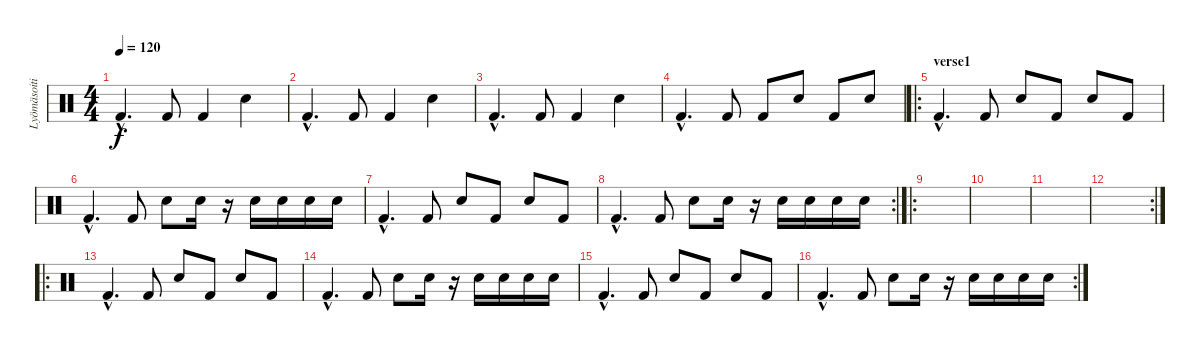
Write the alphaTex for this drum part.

\track ("Lyömäsoitin" "Lyömäsoiti") {instrument percussion}
\staff {score}
\articulation defaults
\ts (4 4)
\tempo 120
\clef neutral
\ks c "Kick (hit) 2"{hac}.4{d dy f} "Kick (hit) 2".8 "Kick (hit) 2".4 "Snare (hit) 2".4
|
"Kick (hit) 2"{hac}.4{d} "Kick (hit) 2".8 "Kick (hit) 2".4 "Snare (hit) 2".4 |
"Kick (hit) 2"{hac}.4{d} "Kick (hit) 2".8 "Kick (hit) 2".4 "Snare (hit) 2".4 |
"Kick (hit) 2"{hac}.4{d} "Kick (hit) 2".8 "Kick (hit) 2".8 "Snare (hit) 2".8 "Kick (hit) 2".8 "Snare (hit) 2".8 |
\ro
\section ("" "verse1")
"Kick (hit) 2"{hac}.4{d} "Kick (hit) 2".8 "Snare (hit) 2".8 "Kick (hit) 2".8 "Snare (hit) 2".8 "Kick (hit) 2".8 |
"Kick (hit) 2"{hac}.4{d} "Kick (hit) 2".8 "Snare (hit) 2".8 "Snare (hit) 2".16 r.16 "Snare (hit) 2".16 "Snare (hit) 2".16 "Snare (hit) 2".16 "Snare (hit) 2".16 |
"Kick (hit) 2"{hac}.4{d} "Kick (hit) 2".8 "Snare (hit) 2".8 "Kick (hit) 2".8 "Snare (hit) 2".8 "Kick (hit) 2".8 |
\rc 2 "Kick (hit) 2"{hac}.4{d} "Kick (hit) 2".8 "Snare (hit) 2".8 "Snare (hit) 2".16
r.16 "Snare (hit) 2".16 "Snare (hit) 2".16 "Snare (hit) 2".16 "Snare (hit) 2".16 |
\ro
|
|
|
\rc 2
|
\ro "Kick (hit) 2"{hac}.4{d} "Kick (hit) 2".8 "Snare (hit) 2".8 "Kick (hit) 2".8 "Snare (hit) 2".8 "Kick (hit) 2".8
|
"Kick (hit) 2"{hac}.4{d} "Kick (hit) 2".8 "Snare (hit) 2".8 "Snare (hit) 2".16 r.16 "Snare (hit) 2".16 "Snare (hit) 2".16 "Snare (hit) 2".16 "Snare (hit) 2".16 |
"Kick (hit) 2"{hac}.4{d} "Kick (hit) 2".8 "Snare (hit) 2".8 "Kick (hit) 2".8 "Snare (hit) 2".8 "Kick (hit) 2".8 |
\rc 2 "Kick (hit) 2"{hac}.4{d} "Kick (hit) 2".8 "Snare (hit) 2".8 "Snare (hit) 2".16
r.16 "Snare (hit) 2".16 "Snare (hit) 2".16 "Snare (hit) 2".16 "Snare (hit) 2".16
